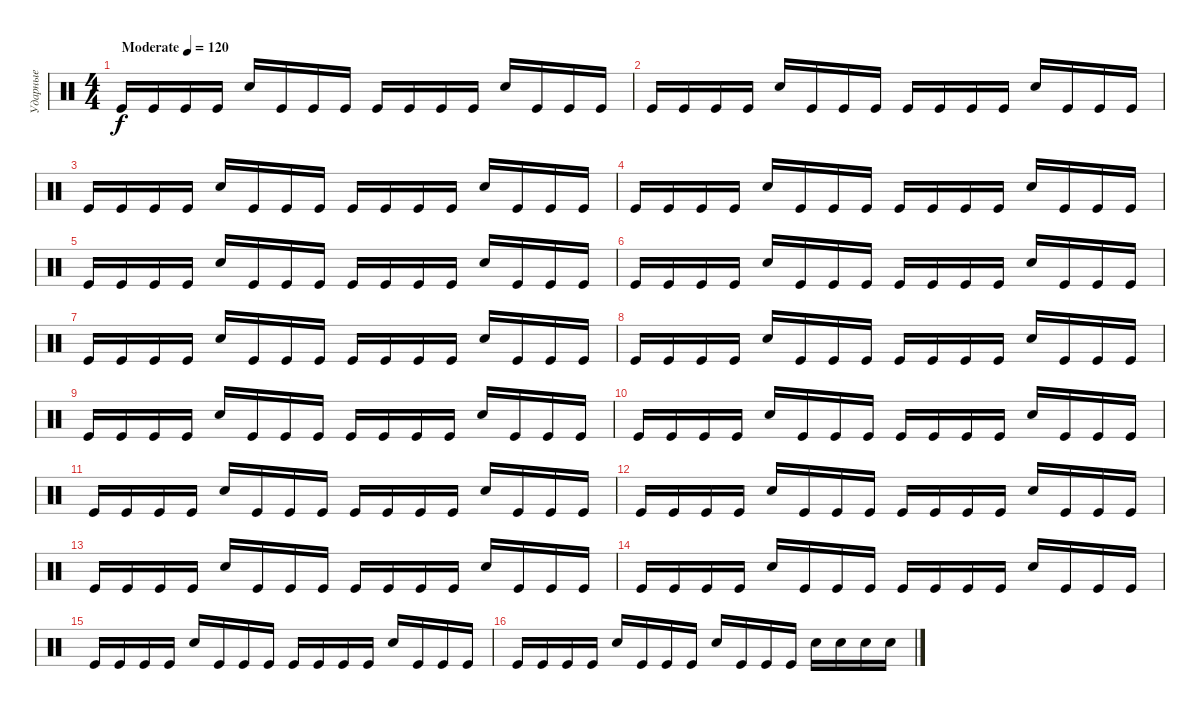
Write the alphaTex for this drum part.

\track ("Ударные" "Ударные") {instrument percussion}
\staff {score}
\articulation defaults
\ts (4 4)
\tempo (120 "Moderate")
\clef neutral
\ks c "Kick (hit)".16{dy f} "Kick (hit)".16 "Kick (hit)".16 "Kick (hit)".16 "Snare (hit) 2".16 "Kick (hit)".16 "Kick (hit)".16 "Kick (hit)".16 "Kick (hit)".16 "Kick (hit)".16 "Kick (hit)".16 "Kick (hit)".16 "Snare (hit) 2".16 "Kick (hit)".16 "Kick (hit)".16 "Kick (hit)".16
|
"Kick (hit)".16 "Kick (hit)".16 "Kick (hit)".16 "Kick (hit)".16 "Snare (hit) 2".16 "Kick (hit)".16 "Kick (hit)".16 "Kick (hit)".16 "Kick (hit)".16 "Kick (hit)".16 "Kick (hit)".16 "Kick (hit)".16 "Snare (hit) 2".16 "Kick (hit)".16 "Kick (hit)".16 "Kick (hit)".16 |
"Kick (hit)".16 "Kick (hit)".16 "Kick (hit)".16 "Kick (hit)".16 "Snare (hit) 2".16 "Kick (hit)".16 "Kick (hit)".16 "Kick (hit)".16 "Kick (hit)".16 "Kick (hit)".16 "Kick (hit)".16 "Kick (hit)".16 "Snare (hit) 2".16 "Kick (hit)".16 "Kick (hit)".16 "Kick (hit)".16 |
"Kick (hit)".16 "Kick (hit)".16 "Kick (hit)".16 "Kick (hit)".16 "Snare (hit) 2".16 "Kick (hit)".16 "Kick (hit)".16 "Kick (hit)".16 "Kick (hit)".16 "Kick (hit)".16 "Kick (hit)".16 "Kick (hit)".16 "Snare (hit) 2".16 "Kick (hit)".16 "Kick (hit)".16 "Kick (hit)".16 |
"Kick (hit)".16 "Kick (hit)".16 "Kick (hit)".16 "Kick (hit)".16 "Snare (hit) 2".16 "Kick (hit)".16 "Kick (hit)".16 "Kick (hit)".16 "Kick (hit)".16 "Kick (hit)".16 "Kick (hit)".16 "Kick (hit)".16 "Snare (hit) 2".16 "Kick (hit)".16 "Kick (hit)".16 "Kick (hit)".16 |
"Kick (hit)".16 "Kick (hit)".16 "Kick (hit)".16 "Kick (hit)".16 "Snare (hit) 2".16 "Kick (hit)".16 "Kick (hit)".16 "Kick (hit)".16 "Kick (hit)".16 "Kick (hit)".16 "Kick (hit)".16 "Kick (hit)".16 "Snare (hit) 2".16 "Kick (hit)".16 "Kick (hit)".16 "Kick (hit)".16 |
"Kick (hit)".16 "Kick (hit)".16 "Kick (hit)".16 "Kick (hit)".16 "Snare (hit) 2".16 "Kick (hit)".16 "Kick (hit)".16 "Kick (hit)".16 "Kick (hit)".16 "Kick (hit)".16 "Kick (hit)".16 "Kick (hit)".16 "Snare (hit) 2".16 "Kick (hit)".16 "Kick (hit)".16 "Kick (hit)".16 |
"Kick (hit)".16 "Kick (hit)".16 "Kick (hit)".16 "Kick (hit)".16 "Snare (hit) 2".16 "Kick (hit)".16 "Kick (hit)".16 "Kick (hit)".16 "Kick (hit)".16 "Kick (hit)".16 "Kick (hit)".16 "Kick (hit)".16 "Snare (hit) 2".16 "Kick (hit)".16 "Kick (hit)".16 "Kick (hit)".16 |
"Kick (hit)".16 "Kick (hit)".16 "Kick (hit)".16 "Kick (hit)".16 "Snare (hit) 2".16 "Kick (hit)".16 "Kick (hit)".16 "Kick (hit)".16 "Kick (hit)".16 "Kick (hit)".16 "Kick (hit)".16 "Kick (hit)".16 "Snare (hit) 2".16 "Kick (hit)".16 "Kick (hit)".16 "Kick (hit)".16 |
"Kick (hit)".16 "Kick (hit)".16 "Kick (hit)".16 "Kick (hit)".16 "Snare (hit) 2".16 "Kick (hit)".16 "Kick (hit)".16 "Kick (hit)".16 "Kick (hit)".16 "Kick (hit)".16 "Kick (hit)".16 "Kick (hit)".16 "Snare (hit) 2".16 "Kick (hit)".16 "Kick (hit)".16 "Kick (hit)".16 |
"Kick (hit)".16 "Kick (hit)".16 "Kick (hit)".16 "Kick (hit)".16 "Snare (hit) 2".16 "Kick (hit)".16 "Kick (hit)".16 "Kick (hit)".16 "Kick (hit)".16 "Kick (hit)".16 "Kick (hit)".16 "Kick (hit)".16 "Snare (hit) 2".16 "Kick (hit)".16 "Kick (hit)".16 "Kick (hit)".16 |
"Kick (hit)".16 "Kick (hit)".16 "Kick (hit)".16 "Kick (hit)".16 "Snare (hit) 2".16 "Kick (hit)".16 "Kick (hit)".16 "Kick (hit)".16 "Kick (hit)".16 "Kick (hit)".16 "Kick (hit)".16 "Kick (hit)".16 "Snare (hit) 2".16 "Kick (hit)".16 "Kick (hit)".16 "Kick (hit)".16 |
"Kick (hit)".16 "Kick (hit)".16 "Kick (hit)".16 "Kick (hit)".16 "Snare (hit) 2".16 "Kick (hit)".16 "Kick (hit)".16 "Kick (hit)".16 "Kick (hit)".16 "Kick (hit)".16 "Kick (hit)".16 "Kick (hit)".16 "Snare (hit) 2".16 "Kick (hit)".16 "Kick (hit)".16 "Kick (hit)".16 |
"Kick (hit)".16 "Kick (hit)".16 "Kick (hit)".16 "Kick (hit)".16 "Snare (hit) 2".16 "Kick (hit)".16 "Kick (hit)".16 "Kick (hit)".16 "Kick (hit)".16 "Kick (hit)".16 "Kick (hit)".16 "Kick (hit)".16 "Snare (hit) 2".16 "Kick (hit)".16 "Kick (hit)".16 "Kick (hit)".16 |
"Kick (hit)".16 "Kick (hit)".16 "Kick (hit)".16 "Kick (hit)".16 "Snare (hit) 2".16 "Kick (hit)".16 "Kick (hit)".16 "Kick (hit)".16 "Kick (hit)".16 "Kick (hit)".16 "Kick (hit)".16 "Kick (hit)".16 "Snare (hit) 2".16 "Kick (hit)".16 "Kick (hit)".16 "Kick (hit)".16 |
"Kick (hit)".16 "Kick (hit)".16 "Kick (hit)".16 "Kick (hit)".16 "Snare (hit) 2".16 "Kick (hit)".16 "Kick (hit)".16 "Kick (hit)".16 "Snare (hit) 2".16 "Kick (hit)".16 "Kick (hit)".16 "Kick (hit)".16 "Snare (hit) 2".16 "Snare (hit) 2".16 "Snare (hit) 2".16 "Snare (hit) 2".16
